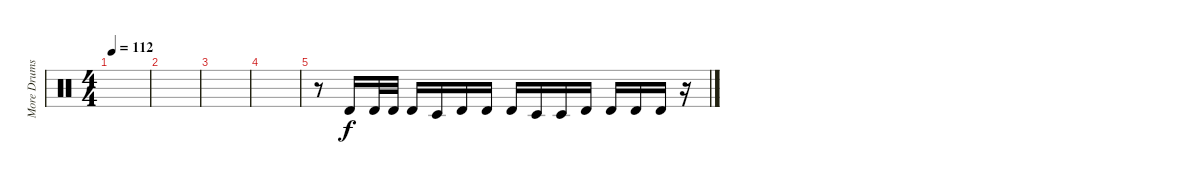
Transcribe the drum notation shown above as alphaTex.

\track ("More Drums" "More Drums") {instrument percussion}
\staff {score}
\articulation defaults
\ts (4 4)
\tempo 112
\clef neutral
\ks c
|
|
|
|
r.8 "Timbale high (hit)".16 "Timbale high (hit)".32 "Timbale high (hit)".32 "Timbale high (hit)".16 "Timbale low (hit)".16 "Timbale high (hit)".16 "Timbale high (hit)".16 "Timbale high (hit)".16 "Timbale low (hit)".16 "Timbale low (hit)".16 "Timbale high (hit)".16 "Timbale high (hit)".16 "Timbale high (hit)".16 "Timbale high (hit)".16 r.16
